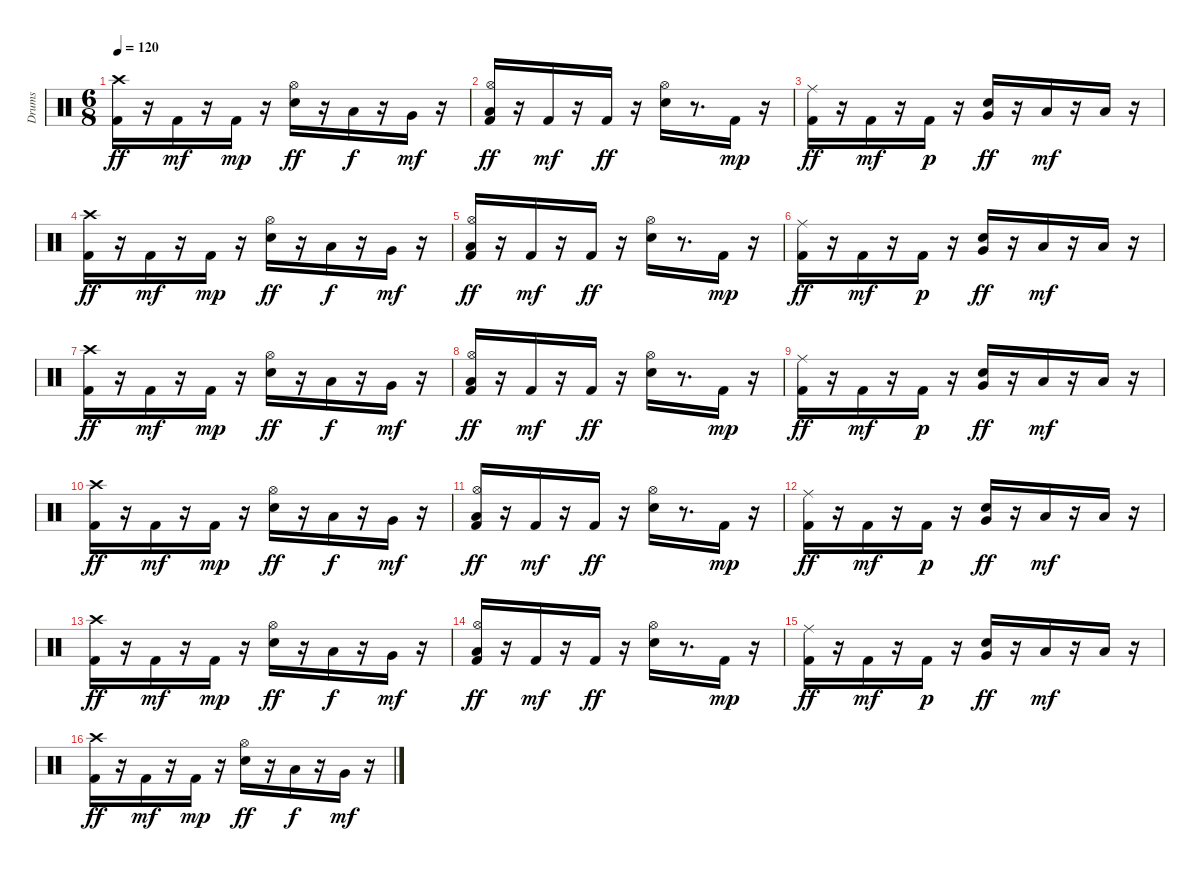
\track ("Drums" "Drums") {instrument percussion}
\staff {score}
\articulation defaults
\ts (6 8)
\tempo 120
\clef neutral
\ks c
("Crash high (hit)" "Kick (hit) 2").16{dy ff} r.16 "Kick (hit) 2".16{dy mf} r.16 "Kick (hit) 2".16{dy mp} r.16 ("Hi-Hat (open)" "Snare (hit) 2").16{dy ff} r.16 "Low Tom (hit)".16{dy f} r.16 "Very Low Tom (hit)".16{dy mf} r.16 |
("Hi-Hat (open)" "Low Floor Tom (hit)" "Kick (hit) 2").16{dy ff} r.16 "Kick (hit) 2".16{dy mf} r.16 "Kick (hit) 2".16{dy ff} r.16 ("Hi-Hat (open)" "Snare (hit) 2").16 r.8{d} "Kick (hit) 2".16{dy mp} r.16 |
("Ride (middle)" "Kick (hit) 2").16{dy ff} r.16 "Kick (hit) 2".16{dy mf} r.16 "Kick (hit) 2".16{dy p} r.16 ("Very Low Tom (hit)" "Snare (hit) 2").16{dy ff} r.16 "Low Floor Tom (hit)".16{dy mf} r.16 "Low Floor Tom (hit)".16 r.16 |
("Crash high (hit)" "Kick (hit) 2").16{dy ff} r.16 "Kick (hit) 2".16{dy mf} r.16 "Kick (hit) 2".16{dy mp} r.16 ("Hi-Hat (open)" "Snare (hit) 2").16{dy ff} r.16 "Low Tom (hit)".16{dy f} r.16 "Very Low Tom (hit)".16{dy mf} r.16 |
("Hi-Hat (open)" "Low Floor Tom (hit)" "Kick (hit) 2").16{dy ff} r.16 "Kick (hit) 2".16{dy mf} r.16 "Kick (hit) 2".16{dy ff} r.16 ("Hi-Hat (open)" "Snare (hit) 2").16 r.8{d} "Kick (hit) 2".16{dy mp} r.16 |
("Ride (middle)" "Kick (hit) 2").16{dy ff} r.16 "Kick (hit) 2".16{dy mf} r.16 "Kick (hit) 2".16{dy p} r.16 ("Very Low Tom (hit)" "Snare (hit) 2").16{dy ff} r.16 "Low Floor Tom (hit)".16{dy mf} r.16 "Low Floor Tom (hit)".16 r.16 |
("Crash high (hit)" "Kick (hit) 2").16{dy ff} r.16 "Kick (hit) 2".16{dy mf} r.16 "Kick (hit) 2".16{dy mp} r.16 ("Hi-Hat (open)" "Snare (hit) 2").16{dy ff} r.16 "Low Tom (hit)".16{dy f} r.16 "Very Low Tom (hit)".16{dy mf} r.16 |
("Hi-Hat (open)" "Low Floor Tom (hit)" "Kick (hit) 2").16{dy ff} r.16 "Kick (hit) 2".16{dy mf} r.16 "Kick (hit) 2".16{dy ff} r.16 ("Hi-Hat (open)" "Snare (hit) 2").16 r.8{d} "Kick (hit) 2".16{dy mp} r.16 |
("Ride (middle)" "Kick (hit) 2").16{dy ff} r.16 "Kick (hit) 2".16{dy mf} r.16 "Kick (hit) 2".16{dy p} r.16 ("Very Low Tom (hit)" "Snare (hit) 2").16{dy ff} r.16 "Low Floor Tom (hit)".16{dy mf} r.16 "Low Floor Tom (hit)".16 r.16 |
("Crash high (hit)" "Kick (hit) 2").16{dy ff} r.16 "Kick (hit) 2".16{dy mf} r.16 "Kick (hit) 2".16{dy mp} r.16 ("Hi-Hat (open)" "Snare (hit) 2").16{dy ff} r.16 "Low Tom (hit)".16{dy f} r.16 "Very Low Tom (hit)".16{dy mf} r.16 |
("Hi-Hat (open)" "Low Floor Tom (hit)" "Kick (hit) 2").16{dy ff} r.16 "Kick (hit) 2".16{dy mf} r.16 "Kick (hit) 2".16{dy ff} r.16 ("Hi-Hat (open)" "Snare (hit) 2").16 r.8{d} "Kick (hit) 2".16{dy mp} r.16 |
("Ride (middle)" "Kick (hit) 2").16{dy ff} r.16 "Kick (hit) 2".16{dy mf} r.16 "Kick (hit) 2".16{dy p} r.16 ("Very Low Tom (hit)" "Snare (hit) 2").16{dy ff} r.16 "Low Floor Tom (hit)".16{dy mf} r.16 "Low Floor Tom (hit)".16 r.16 |
("Crash high (hit)" "Kick (hit) 2").16{dy ff} r.16 "Kick (hit) 2".16{dy mf} r.16 "Kick (hit) 2".16{dy mp} r.16 ("Hi-Hat (open)" "Snare (hit) 2").16{dy ff} r.16 "Low Tom (hit)".16{dy f} r.16 "Very Low Tom (hit)".16{dy mf} r.16 |
("Hi-Hat (open)" "Low Floor Tom (hit)" "Kick (hit) 2").16{dy ff} r.16 "Kick (hit) 2".16{dy mf} r.16 "Kick (hit) 2".16{dy ff} r.16 ("Hi-Hat (open)" "Snare (hit) 2").16 r.8{d} "Kick (hit) 2".16{dy mp} r.16 |
("Ride (middle)" "Kick (hit) 2").16{dy ff} r.16 "Kick (hit) 2".16{dy mf} r.16 "Kick (hit) 2".16{dy p} r.16 ("Very Low Tom (hit)" "Snare (hit) 2").16{dy ff} r.16 "Low Floor Tom (hit)".16{dy mf} r.16 "Low Floor Tom (hit)".16 r.16 |
("Crash high (hit)" "Kick (hit) 2").16{dy ff} r.16 "Kick (hit) 2".16{dy mf} r.16 "Kick (hit) 2".16{dy mp} r.16 ("Hi-Hat (open)" "Snare (hit) 2").16{dy ff} r.16 "Low Tom (hit)".16{dy f} r.16 "Very Low Tom (hit)".16{dy mf} r.16
